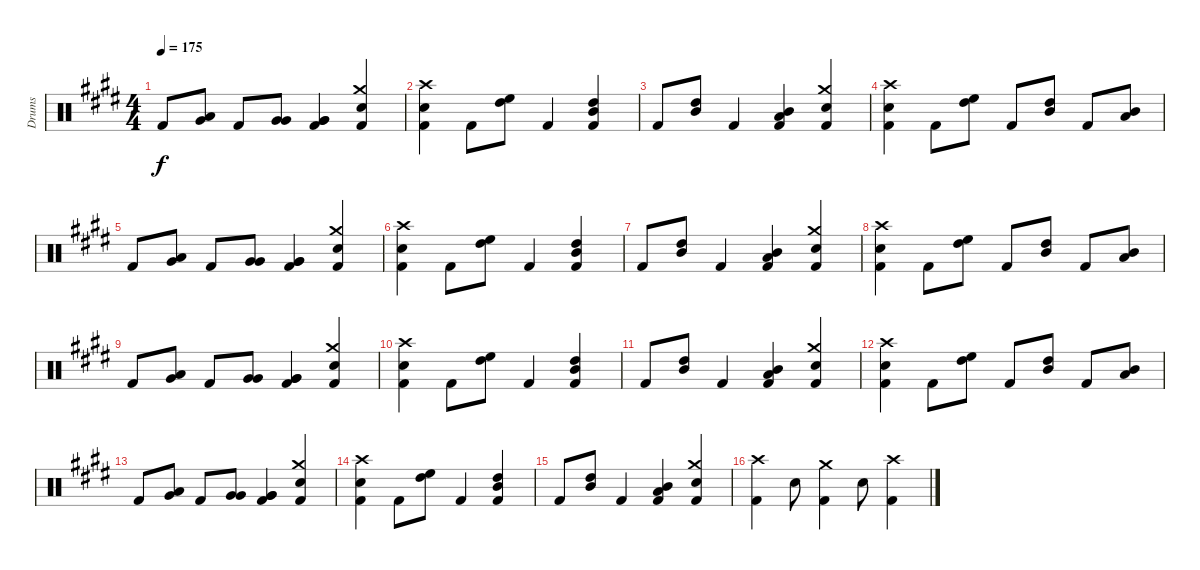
\track ("Drums" "Drums") {instrument percussion}
\staff {score}
\articulation defaults
\ts (4 4)
\tempo 175
\clef neutral
\ks e "Kick (hit) 2".8{dy f}
("Low Tom (hit)" "Very Low Tom (hit)").8 "Kick (hit) 2".8 ("Very Low Tom (hit)" "Very Low Tom (hit)").8 ("Very Low Tom (hit)" "Very Low Tom (hit)" "Kick (hit) 2").4 ("Crash medium (hit)" "Electric Snare (hit)" "Kick (hit) 2").4 |
("Crash high (hit)" "Electric Snare (hit)" "Kick (hit) 2").4 "Kick (hit) 2".8 ("High Floor Tom (hit)" "High Tom (hit)").8 "Kick (hit) 2".4 ("High Tom (hit)" "Mid Tom (hit)" "Kick (hit) 2").4 |
"Kick (hit) 2".8 ("Mid Tom (hit)" "High Tom (hit)").8 "Kick (hit) 2".4 ("Low Tom (hit)" "Mid Tom (hit)" "Kick (hit) 2").4 ("Crash medium (hit)" "Electric Snare (hit)" "Kick (hit) 2").4 |
("Crash high (hit)" "Electric Snare (hit)" "Kick (hit) 2").4 "Kick (hit) 2".8 ("High Floor Tom (hit)" "High Tom (hit)").8 "Kick (hit) 2".8 ("High Tom (hit)" "Mid Tom (hit)").8 "Kick (hit) 2".8 ("Mid Tom (hit)" "Low Tom (hit)").8 |
"Kick (hit) 2".8 ("Low Tom (hit)" "Very Low Tom (hit)").8 "Kick (hit) 2".8 ("Very Low Tom (hit)" "Very Low Tom (hit)").8 ("Very Low Tom (hit)" "Very Low Tom (hit)" "Kick (hit) 2").4 ("Crash medium (hit)" "Electric Snare (hit)" "Kick (hit) 2").4 |
("Crash high (hit)" "Electric Snare (hit)" "Kick (hit) 2").4 "Kick (hit) 2".8 ("High Floor Tom (hit)" "High Tom (hit)").8 "Kick (hit) 2".4 ("High Tom (hit)" "Mid Tom (hit)" "Kick (hit) 2").4 |
"Kick (hit) 2".8 ("Mid Tom (hit)" "High Tom (hit)").8 "Kick (hit) 2".4 ("Low Tom (hit)" "Mid Tom (hit)" "Kick (hit) 2").4 ("Crash medium (hit)" "Electric Snare (hit)" "Kick (hit) 2").4 |
("Crash high (hit)" "Electric Snare (hit)" "Kick (hit) 2").4 "Kick (hit) 2".8 ("High Floor Tom (hit)" "High Tom (hit)").8 "Kick (hit) 2".8 ("High Tom (hit)" "Mid Tom (hit)").8 "Kick (hit) 2".8 ("Mid Tom (hit)" "Low Tom (hit)").8 |
"Kick (hit) 2".8 ("Low Tom (hit)" "Very Low Tom (hit)").8 "Kick (hit) 2".8 ("Very Low Tom (hit)" "Very Low Tom (hit)").8 ("Very Low Tom (hit)" "Very Low Tom (hit)" "Kick (hit) 2").4 ("Crash medium (hit)" "Electric Snare (hit)" "Kick (hit) 2").4 |
("Crash high (hit)" "Electric Snare (hit)" "Kick (hit) 2").4 "Kick (hit) 2".8 ("High Floor Tom (hit)" "High Tom (hit)").8 "Kick (hit) 2".4 ("High Tom (hit)" "Mid Tom (hit)" "Kick (hit) 2").4 |
"Kick (hit) 2".8 ("Mid Tom (hit)" "High Tom (hit)").8 "Kick (hit) 2".4 ("Low Tom (hit)" "Mid Tom (hit)" "Kick (hit) 2").4 ("Crash medium (hit)" "Electric Snare (hit)" "Kick (hit) 2").4 |
("Crash high (hit)" "Electric Snare (hit)" "Kick (hit) 2").4 "Kick (hit) 2".8 ("High Floor Tom (hit)" "High Tom (hit)").8 "Kick (hit) 2".8 ("High Tom (hit)" "Mid Tom (hit)").8 "Kick (hit) 2".8 ("Mid Tom (hit)" "Low Tom (hit)").8 |
"Kick (hit) 2".8 ("Low Tom (hit)" "Very Low Tom (hit)").8 "Kick (hit) 2".8 ("Very Low Tom (hit)" "Very Low Tom (hit)").8 ("Very Low Tom (hit)" "Very Low Tom (hit)" "Kick (hit) 2").4 ("Crash medium (hit)" "Electric Snare (hit)" "Kick (hit) 2").4 |
("Crash high (hit)" "Electric Snare (hit)" "Kick (hit) 2").4 "Kick (hit) 2".8 ("High Floor Tom (hit)" "High Tom (hit)").8 "Kick (hit) 2".4 ("High Tom (hit)" "Mid Tom (hit)" "Kick (hit) 2").4 |
"Kick (hit) 2".8 ("Mid Tom (hit)" "High Tom (hit)").8 "Kick (hit) 2".4 ("Low Tom (hit)" "Mid Tom (hit)" "Kick (hit) 2").4 ("Crash medium (hit)" "Electric Snare (hit)" "Kick (hit) 2").4 |
("Crash high (hit)" "Kick (hit) 2").4 "Electric Snare (hit)".8 ("Crash medium (hit)" "Kick (hit) 2").4 "Electric Snare (hit)".8 ("Crash high (hit)" "Kick (hit) 2").4
